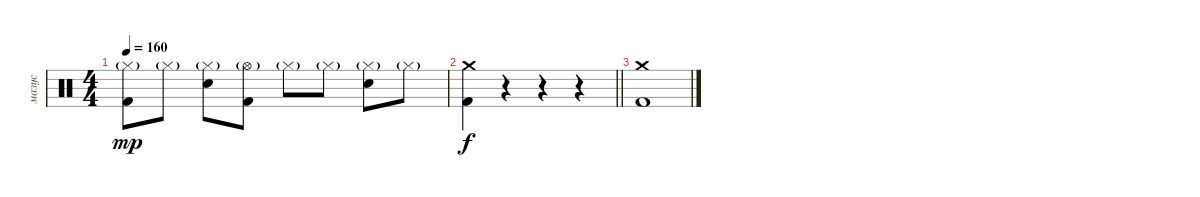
\track ("мазус" "мазус") {instrument percussion}
\staff {score}
\articulation defaults
\ts (4 4)
\tempo 160
\clef neutral
\ks c
("Kick (hit) 2" "Hi-Hat (closed)"{g}).8{dy mp} "Hi-Hat (closed)"{g}.8 ("Electric Snare (hit)" "Hi-Hat (closed)"{g}).8 ("Kick (hit) 2" "Hi-Hat (open)"{g}).8 "Hi-Hat (closed)"{g}.8 "Hi-Hat (closed)"{g}.8 ("Electric Snare (hit)" "Hi-Hat (closed)"{g}).8 "Hi-Hat (closed)"{g}.8 |
\barLineRight lightlight
("Kick (hit) 2" "Crash medium (hit)").4{dy f} r.4 r.4 r.4 |
("Kick (hit) 2" "Crash medium (hit)").1
